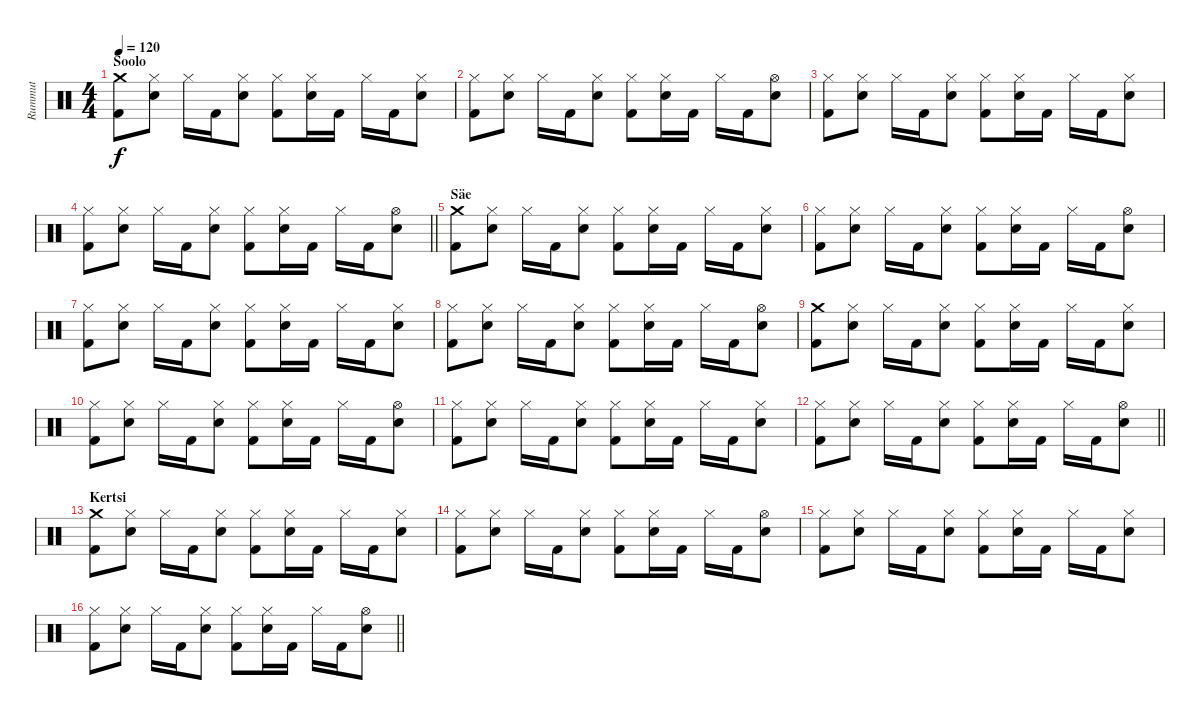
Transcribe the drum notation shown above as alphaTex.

\track ("Rummut" "Rummut") {instrument percussion}
\staff {score}
\articulation defaults
\ts (4 4)
\section ("" "Soolo")
\tempo 120
\clef neutral
\ks c
("Crash medium (hit)" "Kick (hit) 2").8{dy f} ("Hi-Hat (closed)" "Snare (hit) 2").8 "Hi-Hat (closed)".16 "Kick (hit) 2".16 ("Hi-Hat (closed)" "Snare (hit) 2").8 ("Hi-Hat (closed)" "Kick (hit) 2").8 ("Hi-Hat (closed)" "Snare (hit) 2").16 "Kick (hit) 2".16 "Hi-Hat (closed)".16 "Kick (hit) 2".16 ("Hi-Hat (closed)" "Snare (hit) 2").8 |
("Hi-Hat (closed)" "Kick (hit) 2").8 ("Hi-Hat (closed)" "Snare (hit) 2").8 "Hi-Hat (closed)".16 "Kick (hit) 2".16 ("Hi-Hat (closed)" "Snare (hit) 2").8 ("Hi-Hat (closed)" "Kick (hit) 2").8 ("Hi-Hat (closed)" "Snare (hit) 2").16 "Kick (hit) 2".16 "Hi-Hat (closed)".16 "Kick (hit) 2".16 ("Hi-Hat (open)" "Snare (hit) 2").8 |
("Hi-Hat (closed)" "Kick (hit) 2").8 ("Hi-Hat (closed)" "Snare (hit) 2").8 "Hi-Hat (closed)".16 "Kick (hit) 2".16 ("Hi-Hat (closed)" "Snare (hit) 2").8 ("Hi-Hat (closed)" "Kick (hit) 2").8 ("Hi-Hat (closed)" "Snare (hit) 2").16 "Kick (hit) 2".16 "Hi-Hat (closed)".16 "Kick (hit) 2".16 ("Hi-Hat (closed)" "Snare (hit) 2").8 |
\barLineRight lightlight
("Hi-Hat (closed)" "Kick (hit) 2").8 ("Hi-Hat (closed)" "Snare (hit) 2").8 "Hi-Hat (closed)".16 "Kick (hit) 2".16 ("Hi-Hat (closed)" "Snare (hit) 2").8 ("Hi-Hat (closed)" "Kick (hit) 2").8 ("Hi-Hat (closed)" "Snare (hit) 2").16 "Kick (hit) 2".16 "Hi-Hat (closed)".16 "Kick (hit) 2".16 ("Hi-Hat (open)" "Snare (hit) 2").8 |
\section ("" "Säe")
("Crash medium (hit)" "Kick (hit) 2").8 ("Hi-Hat (closed)" "Snare (hit) 2").8 "Hi-Hat (closed)".16 "Kick (hit) 2".16 ("Hi-Hat (closed)" "Snare (hit) 2").8 ("Hi-Hat (closed)" "Kick (hit) 2").8 ("Hi-Hat (closed)" "Snare (hit) 2").16 "Kick (hit) 2".16 "Hi-Hat (closed)".16 "Kick (hit) 2".16 ("Hi-Hat (closed)" "Snare (hit) 2").8 |
("Hi-Hat (closed)" "Kick (hit) 2").8 ("Hi-Hat (closed)" "Snare (hit) 2").8 "Hi-Hat (closed)".16 "Kick (hit) 2".16 ("Hi-Hat (closed)" "Snare (hit) 2").8 ("Hi-Hat (closed)" "Kick (hit) 2").8 ("Hi-Hat (closed)" "Snare (hit) 2").16 "Kick (hit) 2".16 "Hi-Hat (closed)".16 "Kick (hit) 2".16 ("Hi-Hat (open)" "Snare (hit) 2").8 |
("Hi-Hat (closed)" "Kick (hit) 2").8 ("Hi-Hat (closed)" "Snare (hit) 2").8 "Hi-Hat (closed)".16 "Kick (hit) 2".16 ("Hi-Hat (closed)" "Snare (hit) 2").8 ("Hi-Hat (closed)" "Kick (hit) 2").8 ("Hi-Hat (closed)" "Snare (hit) 2").16 "Kick (hit) 2".16 "Hi-Hat (closed)".16 "Kick (hit) 2".16 ("Hi-Hat (closed)" "Snare (hit) 2").8 |
("Hi-Hat (closed)" "Kick (hit) 2").8 ("Hi-Hat (closed)" "Snare (hit) 2").8 "Hi-Hat (closed)".16 "Kick (hit) 2".16 ("Hi-Hat (closed)" "Snare (hit) 2").8 ("Hi-Hat (closed)" "Kick (hit) 2").8 ("Hi-Hat (closed)" "Snare (hit) 2").16 "Kick (hit) 2".16 "Hi-Hat (closed)".16 "Kick (hit) 2".16 ("Hi-Hat (open)" "Snare (hit) 2").8 |
("Crash medium (hit)" "Kick (hit) 2").8 ("Hi-Hat (closed)" "Snare (hit) 2").8 "Hi-Hat (closed)".16 "Kick (hit) 2".16 ("Hi-Hat (closed)" "Snare (hit) 2").8 ("Hi-Hat (closed)" "Kick (hit) 2").8 ("Hi-Hat (closed)" "Snare (hit) 2").16 "Kick (hit) 2".16 "Hi-Hat (closed)".16 "Kick (hit) 2".16 ("Hi-Hat (closed)" "Snare (hit) 2").8 |
("Hi-Hat (closed)" "Kick (hit) 2").8 ("Hi-Hat (closed)" "Snare (hit) 2").8 "Hi-Hat (closed)".16 "Kick (hit) 2".16 ("Hi-Hat (closed)" "Snare (hit) 2").8 ("Hi-Hat (closed)" "Kick (hit) 2").8 ("Hi-Hat (closed)" "Snare (hit) 2").16 "Kick (hit) 2".16 "Hi-Hat (closed)".16 "Kick (hit) 2".16 ("Hi-Hat (open)" "Snare (hit) 2").8 |
("Hi-Hat (closed)" "Kick (hit) 2").8 ("Hi-Hat (closed)" "Snare (hit) 2").8 "Hi-Hat (closed)".16 "Kick (hit) 2".16 ("Hi-Hat (closed)" "Snare (hit) 2").8 ("Hi-Hat (closed)" "Kick (hit) 2").8 ("Hi-Hat (closed)" "Snare (hit) 2").16 "Kick (hit) 2".16 "Hi-Hat (closed)".16 "Kick (hit) 2".16 ("Hi-Hat (closed)" "Snare (hit) 2").8 |
\barLineRight lightlight
("Hi-Hat (closed)" "Kick (hit) 2").8 ("Hi-Hat (closed)" "Snare (hit) 2").8 "Hi-Hat (closed)".16 "Kick (hit) 2".16 ("Hi-Hat (closed)" "Snare (hit) 2").8 ("Hi-Hat (closed)" "Kick (hit) 2").8 ("Hi-Hat (closed)" "Snare (hit) 2").16 "Kick (hit) 2".16 "Hi-Hat (closed)".16 "Kick (hit) 2".16 ("Hi-Hat (open)" "Snare (hit) 2").8 |
\section ("" "Kertsi")
("Crash medium (hit)" "Kick (hit) 2").8 ("Hi-Hat (closed)" "Snare (hit) 2").8 "Hi-Hat (closed)".16 "Kick (hit) 2".16 ("Hi-Hat (closed)" "Snare (hit) 2").8 ("Hi-Hat (closed)" "Kick (hit) 2").8 ("Hi-Hat (closed)" "Snare (hit) 2").16 "Kick (hit) 2".16 "Hi-Hat (closed)".16 "Kick (hit) 2".16 ("Hi-Hat (closed)" "Snare (hit) 2").8 |
("Hi-Hat (closed)" "Kick (hit) 2").8 ("Hi-Hat (closed)" "Snare (hit) 2").8 "Hi-Hat (closed)".16 "Kick (hit) 2".16 ("Hi-Hat (closed)" "Snare (hit) 2").8 ("Hi-Hat (closed)" "Kick (hit) 2").8 ("Hi-Hat (closed)" "Snare (hit) 2").16 "Kick (hit) 2".16 "Hi-Hat (closed)".16 "Kick (hit) 2".16 ("Hi-Hat (open)" "Snare (hit) 2").8 |
("Hi-Hat (closed)" "Kick (hit) 2").8 ("Hi-Hat (closed)" "Snare (hit) 2").8 "Hi-Hat (closed)".16 "Kick (hit) 2".16 ("Hi-Hat (closed)" "Snare (hit) 2").8 ("Hi-Hat (closed)" "Kick (hit) 2").8 ("Hi-Hat (closed)" "Snare (hit) 2").16 "Kick (hit) 2".16 "Hi-Hat (closed)".16 "Kick (hit) 2".16 ("Hi-Hat (closed)" "Snare (hit) 2").8 |
\barLineRight lightlight
("Hi-Hat (closed)" "Kick (hit) 2").8 ("Hi-Hat (closed)" "Snare (hit) 2").8 "Hi-Hat (closed)".16 "Kick (hit) 2".16 ("Hi-Hat (closed)" "Snare (hit) 2").8 ("Hi-Hat (closed)" "Kick (hit) 2").8 ("Hi-Hat (closed)" "Snare (hit) 2").16 "Kick (hit) 2".16 "Hi-Hat (closed)".16 "Kick (hit) 2".16 ("Hi-Hat (open)" "Snare (hit) 2").8
